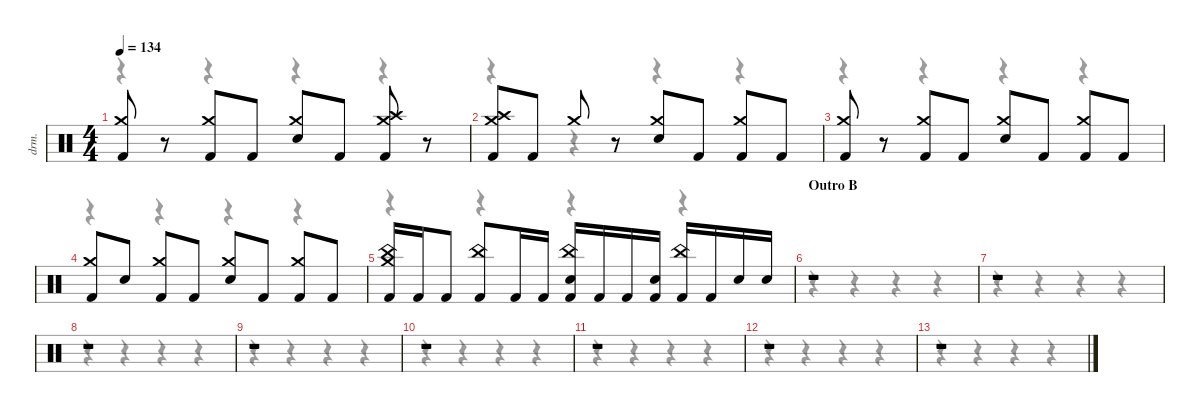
\defaultSystemsLayout 4
\hideDynamics
\bracketExtendMode nobrackets
\track ("Alex Ballew" "drm.") {instrument percussion}
\staff {score}
\articulation defaults
\voice
\ts (4 4)
\tempo 134
\clef neutral
\ks c
("Crash medium (hit)" "Kick (hit) 2").8{dy f} r.8 ("Crash medium (hit)" "Kick (hit) 2").8 "Kick (hit) 2".8 ("Crash medium (hit)" "Snare (hit) 2").8 "Kick (hit) 2".8 ("Crash medium (hit)" "Crash high (hit)" "Kick (hit) 2").8 r.8 |
("Crash medium (hit)" "Crash high (hit)" "Kick (hit) 2").8 "Kick (hit) 2".8 "Crash medium (hit)".8 r.8 ("Crash medium (hit)" "Snare (hit) 2").8 "Kick (hit) 2".8 ("Crash medium (hit)" "Kick (hit) 2").8 "Kick (hit) 2".8 |
("Crash medium (hit)" "Kick (hit) 2").8 r.8 ("Crash medium (hit)" "Kick (hit) 2").8 "Kick (hit) 2".8 ("Crash medium (hit)" "Snare (hit) 2").8 "Kick (hit) 2".8 ("Crash medium (hit)" "Kick (hit) 2").8 "Kick (hit) 2".8 |
("Crash medium (hit)" "Kick (hit) 2").8 "Snare (hit) 2".8 ("Crash medium (hit)" "Kick (hit) 2").8 "Kick (hit) 2".8 ("Crash medium (hit)" "Snare (hit) 2").8 "Kick (hit) 2".8 ("Crash medium (hit)" "Kick (hit) 2").8 "Kick (hit) 2".8 |
("China (hit)" "Crash medium (hit)" "Kick (hit) 2").16 "Kick (hit) 2".16 "Kick (hit) 2".8 ("China (hit)" "Kick (hit) 2").8 "Kick (hit) 2".16 "Kick (hit) 2".16 ("China (hit)" "Snare (hit) 2" "Kick (hit) 2").16 "Kick (hit) 2".16 "Kick (hit) 2".16 ("Snare (hit) 2" "Kick (hit) 2").16 ("China (hit)" "Kick (hit) 2").16 "Kick (hit) 2".16 "Snare (hit) 2".16 "Snare (hit) 2".16 |
\section ("" "Outro B")
r.1 |
r.1 |
r.1 |
r.1 |
r.1 |
r.1 |
r.1 |
r.1
\voice
\clef neutral
\ottava regular
\simile none
\ks c
r.4{dy mf} r.4 r.4 r.4 |
r.4 r.4 r.4 r.4 |
r.4 r.4 r.4 r.4 |
r.4 r.4 r.4 r.4 |
r.4 r.4 r.4 r.4 |
r.4 r.4 r.4 r.4 |
r.4 r.4 r.4 r.4 |
r.4 r.4 r.4 r.4 |
r.4 r.4 r.4 r.4 |
r.4 r.4 r.4 r.4 |
r.4 r.4 r.4 r.4 |
r.4 r.4 r.4 r.4 |
r.4 r.4 r.4 r.4
